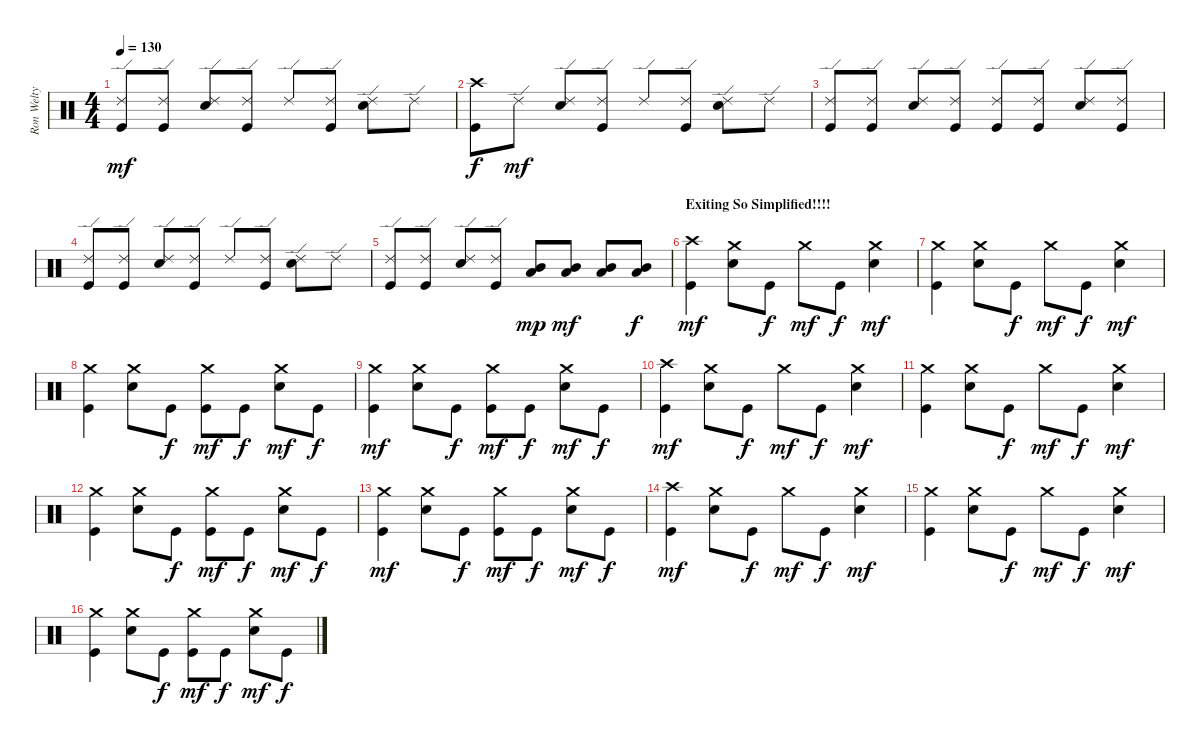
\track ("Ron Welty" "Ron Welty") {instrument percussion}
\staff {score}
\articulation defaults
\ts (4 4)
\tempo 130
\clef neutral
\ks c
("Kick (hit)" "Ride (edge) 2").8{dy mf} ("Kick (hit)" "Ride (edge) 2").8 ("Electric Snare (hit)" "Ride (edge) 2").8 ("Kick (hit)" "Ride (edge) 2").8 "Ride (edge) 2".8 ("Kick (hit)" "Ride (edge) 2").8 ("Electric Snare (hit)" "Ride (edge) 2").8 "Ride (edge) 2".8 |
("Kick (hit)" "Crash high (hit)").8{dy f} "Ride (edge) 2".8{dy mf} ("Electric Snare (hit)" "Ride (edge) 2").8 ("Kick (hit)" "Ride (edge) 2").8 "Ride (edge) 2".8 ("Kick (hit)" "Ride (edge) 2").8 ("Electric Snare (hit)" "Ride (edge) 2").8 "Ride (edge) 2".8 |
("Kick (hit)" "Ride (edge) 2").8 ("Kick (hit)" "Ride (edge) 2").8 ("Electric Snare (hit)" "Ride (edge) 2").8 ("Kick (hit)" "Ride (edge) 2").8 ("Kick (hit)" "Ride (edge) 2").8 ("Kick (hit)" "Ride (edge) 2").8 ("Electric Snare (hit)" "Ride (edge) 2").8 ("Kick (hit)" "Ride (edge) 2").8 |
("Kick (hit)" "Ride (edge) 2").8 ("Kick (hit)" "Ride (edge) 2").8 ("Electric Snare (hit)" "Ride (edge) 2").8 ("Kick (hit)" "Ride (edge) 2").8 "Ride (edge) 2".8 ("Kick (hit)" "Ride (edge) 2").8 ("Electric Snare (hit)" "Ride (edge) 2").8 "Ride (edge) 2".8 |
("Kick (hit)" "Ride (edge) 2").8 ("Kick (hit)" "Ride (edge) 2").8 ("Electric Snare (hit)" "Ride (edge) 2").8 ("Kick (hit)" "Ride (edge) 2").8 ("Low Floor Tom (hit)" "Mid Tom (hit)").8{dy mp} ("Mid Tom (hit)" "Low Floor Tom (hit)").8{dy mf} ("Mid Tom (hit)" "Low Floor Tom (hit)").8 ("Mid Tom (hit)" "Low Floor Tom (hit)").8{dy f} |
\section ("" "Exiting So Simplified!!!!")
("Kick (hit)" "Crash high (hit)").4{dy mf} ("Electric Snare (hit)" "Crash medium (hit)").8 "Kick (hit)".8{dy f} "Crash medium (hit)".8{dy mf} "Kick (hit)".8{dy f} ("Electric Snare (hit)" "Crash medium (hit)").4{dy mf} |
("Kick (hit)" "Crash medium (hit)").4 ("Electric Snare (hit)" "Crash medium (hit)").8 "Kick (hit)".8{dy f} "Crash medium (hit)".8{dy mf} "Kick (hit)".8{dy f} ("Electric Snare (hit)" "Crash medium (hit)").4{dy mf} |
("Kick (hit)" "Crash medium (hit)").4 ("Electric Snare (hit)" "Crash medium (hit)").8 "Kick (hit)".8{dy f} ("Kick (hit)" "Crash medium (hit)").8{dy mf} "Kick (hit)".8{dy f} ("Electric Snare (hit)" "Crash medium (hit)").8{dy mf} "Kick (hit)".8{dy f} |
("Kick (hit)" "Crash medium (hit)").4{dy mf} ("Electric Snare (hit)" "Crash medium (hit)").8 "Kick (hit)".8{dy f} ("Kick (hit)" "Crash medium (hit)").8{dy mf} "Kick (hit)".8{dy f} ("Electric Snare (hit)" "Crash medium (hit)").8{dy mf} "Kick (hit)".8{dy f} |
("Kick (hit)" "Crash high (hit)").4{dy mf} ("Electric Snare (hit)" "Crash medium (hit)").8 "Kick (hit)".8{dy f} "Crash medium (hit)".8{dy mf} "Kick (hit)".8{dy f} ("Electric Snare (hit)" "Crash medium (hit)").4{dy mf} |
("Kick (hit)" "Crash medium (hit)").4 ("Electric Snare (hit)" "Crash medium (hit)").8 "Kick (hit)".8{dy f} "Crash medium (hit)".8{dy mf} "Kick (hit)".8{dy f} ("Electric Snare (hit)" "Crash medium (hit)").4{dy mf} |
("Kick (hit)" "Crash medium (hit)").4 ("Electric Snare (hit)" "Crash medium (hit)").8 "Kick (hit)".8{dy f} ("Kick (hit)" "Crash medium (hit)").8{dy mf} "Kick (hit)".8{dy f} ("Electric Snare (hit)" "Crash medium (hit)").8{dy mf} "Kick (hit)".8{dy f} |
("Kick (hit)" "Crash medium (hit)").4{dy mf} ("Electric Snare (hit)" "Crash medium (hit)").8 "Kick (hit)".8{dy f} ("Kick (hit)" "Crash medium (hit)").8{dy mf} "Kick (hit)".8{dy f} ("Electric Snare (hit)" "Crash medium (hit)").8{dy mf} "Kick (hit)".8{dy f} |
("Kick (hit)" "Crash high (hit)").4{dy mf} ("Electric Snare (hit)" "Crash medium (hit)").8 "Kick (hit)".8{dy f} "Crash medium (hit)".8{dy mf} "Kick (hit)".8{dy f} ("Electric Snare (hit)" "Crash medium (hit)").4{dy mf} |
("Kick (hit)" "Crash medium (hit)").4 ("Electric Snare (hit)" "Crash medium (hit)").8 "Kick (hit)".8{dy f} "Crash medium (hit)".8{dy mf} "Kick (hit)".8{dy f} ("Electric Snare (hit)" "Crash medium (hit)").4{dy mf} |
("Kick (hit)" "Crash medium (hit)").4 ("Electric Snare (hit)" "Crash medium (hit)").8 "Kick (hit)".8{dy f} ("Kick (hit)" "Crash medium (hit)").8{dy mf} "Kick (hit)".8{dy f} ("Electric Snare (hit)" "Crash medium (hit)").8{dy mf} "Kick (hit)".8{dy f}
